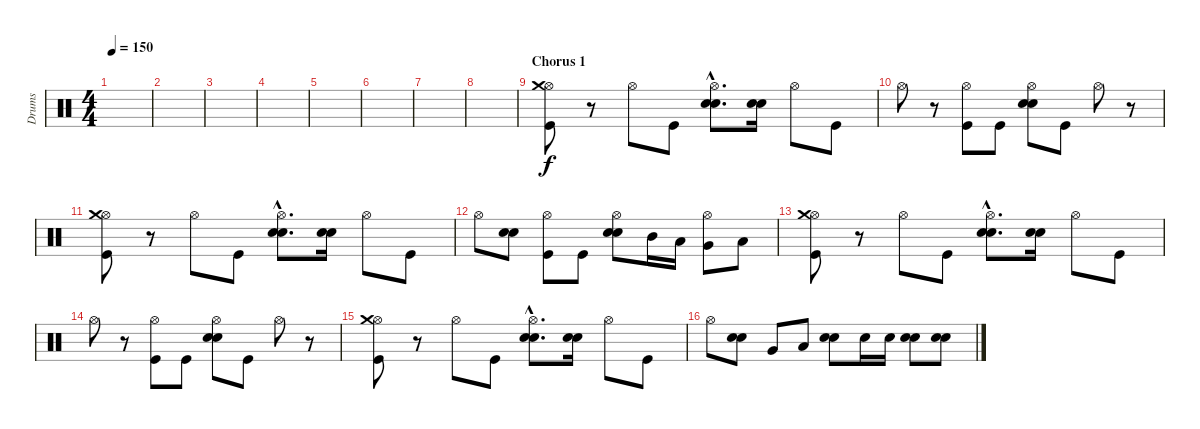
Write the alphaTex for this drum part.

\track ("Drums" "Drums") {instrument percussion}
\staff {score}
\articulation defaults
\ts (4 4)
\tempo 150
\clef neutral
\ks c
|
|
|
|
|
|
|
|
\section ("" "Chorus 1")
("Kick (hit)" "Hi-Hat (open)" "Crash medium (hit)").8 r.8 "Hi-Hat (open)".8 "Kick (hit)".8 ("Electric Snare (hit)"{hac} "Electric Snare (hit)"{hac} "Hi-Hat (open)"{hac}).8{d} ("Electric Snare (hit)" "Electric Snare (hit)").16 "Hi-Hat (open)".8 "Kick (hit)".8 |
"Hi-Hat (open)".8 r.8 ("Kick (hit)" "Hi-Hat (open)").8 "Kick (hit)".8 ("Electric Snare (hit)" "Electric Snare (hit)" "Hi-Hat (open)").8 "Kick (hit)".8 "Hi-Hat (open)".8 r.8 |
("Kick (hit)" "Hi-Hat (open)" "Crash medium (hit)").8 r.8 "Hi-Hat (open)".8 "Kick (hit)".8 ("Electric Snare (hit)"{hac} "Electric Snare (hit)"{hac} "Hi-Hat (open)"{hac}).8{d} ("Electric Snare (hit)" "Electric Snare (hit)").16 "Hi-Hat (open)".8 "Kick (hit)".8 |
"Hi-Hat (open)".8 ("Electric Snare (hit)" "Electric Snare (hit)").8 ("Kick (hit)" "Hi-Hat (open)").8 "Kick (hit)".8 ("Electric Snare (hit)" "Electric Snare (hit)" "Hi-Hat (open)").8 "Mid Tom (hit)".16 "Low Tom (hit)".16 ("Very Low Tom (hit)" "Hi-Hat (open)").8 "Low Floor Tom (hit)".8 |
("Kick (hit)" "Hi-Hat (open)" "Crash medium (hit)").8 r.8 "Hi-Hat (open)".8 "Kick (hit)".8 ("Electric Snare (hit)"{hac} "Electric Snare (hit)"{hac} "Hi-Hat (open)"{hac}).8{d} ("Electric Snare (hit)" "Electric Snare (hit)").16 "Hi-Hat (open)".8 "Kick (hit)".8 |
"Hi-Hat (open)".8 r.8 ("Kick (hit)" "Hi-Hat (open)").8 "Kick (hit)".8 ("Electric Snare (hit)" "Electric Snare (hit)" "Hi-Hat (open)").8 "Kick (hit)".8 "Hi-Hat (open)".8 r.8 |
("Kick (hit)" "Hi-Hat (open)" "Crash medium (hit)").8 r.8 "Hi-Hat (open)".8 "Kick (hit)".8 ("Electric Snare (hit)"{hac} "Electric Snare (hit)"{hac} "Hi-Hat (open)"{hac}).8{d} ("Electric Snare (hit)" "Electric Snare (hit)").16 "Hi-Hat (open)".8 "Kick (hit)".8 |
"Hi-Hat (open)".8 ("Electric Snare (hit)" "Electric Snare (hit)").8 "Very Low Tom (hit)".8 "Low Floor Tom (hit)".8 ("Electric Snare (hit)" "Electric Snare (hit)").8 "Electric Snare (hit)".16 "Electric Snare (hit)".16 ("Electric Snare (hit)" "Electric Snare (hit)").8 ("Electric Snare (hit)" "Electric Snare (hit)").8
